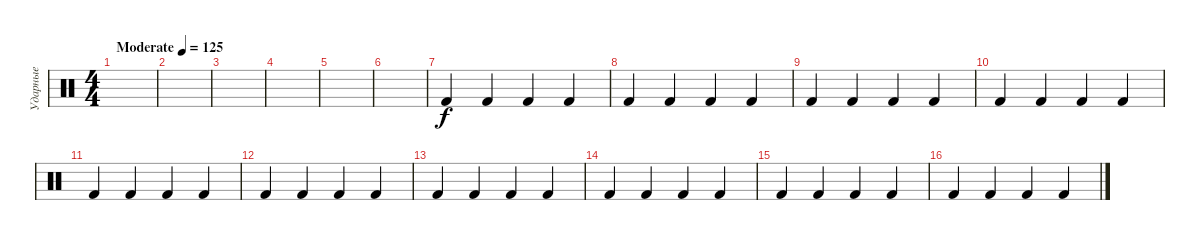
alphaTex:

\track ("Ударные" "Ударные") {instrument percussion}
\staff {score}
\articulation defaults
\ts (4 4)
\tempo (125 "Moderate")
\clef neutral
\ks c
|
|
|
|
|
|
"Kick (hit) 2".4 "Kick (hit) 2".4 "Kick (hit) 2".4 "Kick (hit) 2".4 |
"Kick (hit) 2".4 "Kick (hit) 2".4 "Kick (hit) 2".4 "Kick (hit) 2".4 |
"Kick (hit) 2".4 "Kick (hit) 2".4 "Kick (hit) 2".4 "Kick (hit) 2".4 |
"Kick (hit) 2".4 "Kick (hit) 2".4 "Kick (hit) 2".4 "Kick (hit) 2".4 |
"Kick (hit) 2".4 "Kick (hit) 2".4 "Kick (hit) 2".4 "Kick (hit) 2".4 |
"Kick (hit) 2".4 "Kick (hit) 2".4 "Kick (hit) 2".4 "Kick (hit) 2".4 |
"Kick (hit) 2".4 "Kick (hit) 2".4 "Kick (hit) 2".4 "Kick (hit) 2".4 |
"Kick (hit) 2".4 "Kick (hit) 2".4 "Kick (hit) 2".4 "Kick (hit) 2".4 |
"Kick (hit) 2".4 "Kick (hit) 2".4 "Kick (hit) 2".4 "Kick (hit) 2".4 |
"Kick (hit) 2".4 "Kick (hit) 2".4 "Kick (hit) 2".4 "Kick (hit) 2".4
